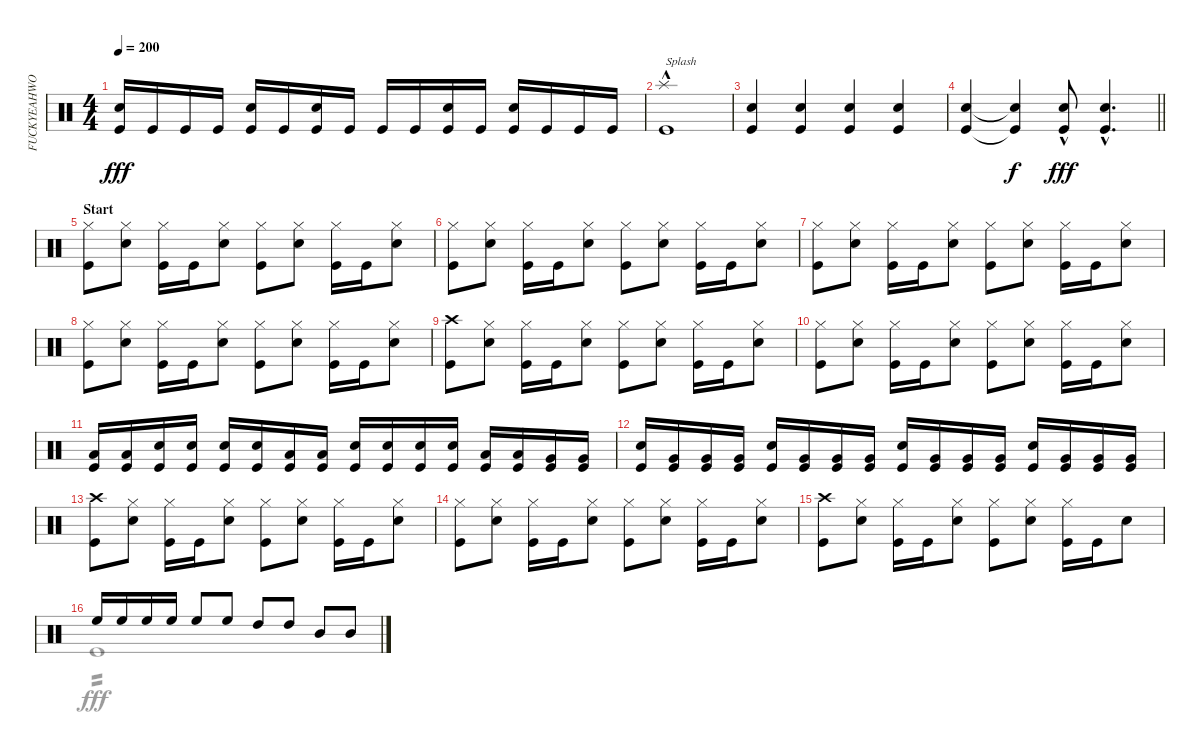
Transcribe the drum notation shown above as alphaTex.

\track ("FUCKYEAHWOOTDAVEMACKINTOSH!(Percussion)" "FUCKYEAHWO") {instrument percussion}
\staff {score}
\articulation defaults
\voice
\ts (4 4)
\tempo 200
\clef neutral
\ks c
("Kick (hit)" "Snare (hit) 2").16{dy fff} "Kick (hit)".16 "Kick (hit)".16 "Kick (hit)".16 ("Kick (hit)" "Snare (hit) 2").16 "Kick (hit)".16 ("Kick (hit)" "Snare (hit) 2").16 "Kick (hit)".16 "Kick (hit)".16 "Kick (hit)".16 ("Kick (hit)" "Snare (hit) 2").16 "Kick (hit)".16 ("Kick (hit)" "Snare (hit) 2").16 "Kick (hit)".16 "Kick (hit)".16 "Kick (hit)".16 |
("Kick (hit)" "Splash (hit)"{hac}).1{txt "Splash"} |
("Kick (hit)" "Snare (hit) 2").4 ("Kick (hit)" "Snare (hit) 2").4 ("Kick (hit)" "Snare (hit) 2").4 ("Kick (hit)" "Snare (hit) 2").4 |
\barLineRight lightlight
("Kick (hit)" "Snare (hit) 2").4 ("Kick (hit)"{t} "Snare (hit) 2"{t}).4{dy f} ("Kick (hit)"{hac} "Snare (hit) 2"{hac}).8{dy fff} ("Kick (hit)"{hac} "Snare (hit) 2"{hac}).4{d} |
\section ("" "Start")
("Kick (hit)" "Hi-Hat (closed)").8 ("Snare (hit) 2" "Hi-Hat (closed)").8 ("Kick (hit)" "Hi-Hat (closed)").16 "Kick (hit)".16 ("Snare (hit) 2" "Hi-Hat (closed)").8 ("Kick (hit)" "Hi-Hat (closed)").8 ("Snare (hit) 2" "Hi-Hat (closed)").8 ("Kick (hit)" "Hi-Hat (closed)").16 "Kick (hit)".16 ("Snare (hit) 2" "Hi-Hat (closed)").8 |
("Kick (hit)" "Hi-Hat (closed)").8 ("Snare (hit) 2" "Hi-Hat (closed)").8 ("Kick (hit)" "Hi-Hat (closed)").16 "Kick (hit)".16 ("Snare (hit) 2" "Hi-Hat (closed)").8 ("Kick (hit)" "Hi-Hat (closed)").8 ("Snare (hit) 2" "Hi-Hat (closed)").8 ("Kick (hit)" "Hi-Hat (closed)").16 "Kick (hit)".16 ("Snare (hit) 2" "Hi-Hat (closed)").8 |
("Kick (hit)" "Hi-Hat (closed)").8 ("Snare (hit) 2" "Hi-Hat (closed)").8 ("Kick (hit)" "Hi-Hat (closed)").16 "Kick (hit)".16 ("Snare (hit) 2" "Hi-Hat (closed)").8 ("Kick (hit)" "Hi-Hat (closed)").8 ("Snare (hit) 2" "Hi-Hat (closed)").8 ("Kick (hit)" "Hi-Hat (closed)").16 "Kick (hit)".16 ("Snare (hit) 2" "Hi-Hat (closed)").8 |
("Kick (hit)" "Hi-Hat (closed)").8 ("Snare (hit) 2" "Hi-Hat (closed)").8 ("Kick (hit)" "Hi-Hat (closed)").16 "Kick (hit)".16 ("Snare (hit) 2" "Hi-Hat (closed)").8 ("Kick (hit)" "Hi-Hat (closed)").8 ("Snare (hit) 2" "Hi-Hat (closed)").8 ("Kick (hit)" "Hi-Hat (closed)").16 "Kick (hit)".16 ("Snare (hit) 2" "Hi-Hat (closed)").8 |
("Kick (hit)" "Crash high (hit)").8 ("Snare (hit) 2" "Hi-Hat (closed)").8 ("Kick (hit)" "Hi-Hat (closed)").16 "Kick (hit)".16 ("Snare (hit) 2" "Hi-Hat (closed)").8 ("Kick (hit)" "Hi-Hat (closed)").8 ("Snare (hit) 2" "Hi-Hat (closed)").8 ("Kick (hit)" "Hi-Hat (closed)").16 "Kick (hit)".16 ("Snare (hit) 2" "Hi-Hat (closed)").8 |
("Kick (hit)" "Hi-Hat (closed)").8 ("Snare (hit) 2" "Hi-Hat (closed)").8 ("Kick (hit)" "Hi-Hat (closed)").16 "Kick (hit)".16 ("Snare (hit) 2" "Hi-Hat (closed)").8 ("Kick (hit)" "Hi-Hat (closed)").8 ("Snare (hit) 2" "Hi-Hat (closed)").8 ("Kick (hit)" "Hi-Hat (closed)").16 "Kick (hit)".16 ("Snare (hit) 2" "Hi-Hat (closed)").8 |
("Low Tom (hit)" "Kick (hit)").16 ("Low Tom (hit)" "Kick (hit)").16 ("Snare (hit) 2" "Kick (hit)").16 ("Snare (hit) 2" "Kick (hit)").16 ("Snare (hit) 2" "Kick (hit)").16 ("Snare (hit) 2" "Kick (hit)").16 ("Low Tom (hit)" "Kick (hit)").16 ("Low Tom (hit)" "Kick (hit)").16 ("Snare (hit) 2" "Kick (hit)").16 ("Snare (hit) 2" "Kick (hit)").16 ("Snare (hit) 2" "Kick (hit)").16 ("Snare (hit) 2" "Kick (hit)").16 ("Low Tom (hit)" "Kick (hit)").16 ("Low Tom (hit)" "Kick (hit)").16 ("Very Low Tom (hit)" "Kick (hit)").16 ("Very Low Tom (hit)" "Kick (hit)").16 |
("Snare (hit) 2" "Kick (hit)").16 ("Very Low Tom (hit)" "Kick (hit)").16 ("Very Low Tom (hit)" "Kick (hit)").16 ("Very Low Tom (hit)" "Kick (hit)").16 ("Snare (hit) 2" "Kick (hit)").16 ("Very Low Tom (hit)" "Kick (hit)").16 ("Very Low Tom (hit)" "Kick (hit)").16 ("Very Low Tom (hit)" "Kick (hit)").16 ("Snare (hit) 2" "Kick (hit)").16 ("Very Low Tom (hit)" "Kick (hit)").16 ("Very Low Tom (hit)" "Kick (hit)").16 ("Very Low Tom (hit)" "Kick (hit)").16 ("Snare (hit) 2" "Kick (hit)").16 ("Very Low Tom (hit)" "Kick (hit)").16 ("Very Low Tom (hit)" "Kick (hit)").16 ("Very Low Tom (hit)" "Kick (hit)").16 |
("Kick (hit)" "Crash high (hit)").8 ("Snare (hit) 2" "Hi-Hat (closed)").8 ("Kick (hit)" "Hi-Hat (closed)").16 "Kick (hit)".16 ("Snare (hit) 2" "Hi-Hat (closed)").8 ("Kick (hit)" "Hi-Hat (closed)").8 ("Snare (hit) 2" "Hi-Hat (closed)").8 ("Kick (hit)" "Hi-Hat (closed)").16 "Kick (hit)".16 ("Snare (hit) 2" "Hi-Hat (closed)").8 |
("Kick (hit)" "Hi-Hat (closed)").8 ("Snare (hit) 2" "Hi-Hat (closed)").8 ("Kick (hit)" "Hi-Hat (closed)").16 "Kick (hit)".16 ("Snare (hit) 2" "Hi-Hat (closed)").8 ("Kick (hit)" "Hi-Hat (closed)").8 ("Snare (hit) 2" "Hi-Hat (closed)").8 ("Kick (hit)" "Hi-Hat (closed)").16 "Kick (hit)".16 ("Snare (hit) 2" "Hi-Hat (closed)").8 |
("Kick (hit)" "Crash high (hit)").8 ("Snare (hit) 2" "Hi-Hat (closed)").8 ("Kick (hit)" "Hi-Hat (closed)").16 "Kick (hit)".16 ("Snare (hit) 2" "Hi-Hat (closed)").8 ("Kick (hit)" "Hi-Hat (closed)").8 ("Snare (hit) 2" "Hi-Hat (closed)").8 ("Kick (hit)" "Hi-Hat (closed)").16 "Kick (hit)".16 "Snare (hit) 2".8 |
"High Floor Tom (hit)".16 "High Floor Tom (hit)".16 "High Floor Tom (hit)".16 "High Floor Tom (hit)".16 "High Floor Tom (hit)".8 "High Floor Tom (hit)".8 "High Tom (hit)".8 "High Tom (hit)".8 "Mid Tom (hit)".8 "Mid Tom (hit)".8
\voice
\clef neutral
\ottava regular
\simile none
\ks c
|
|
|
\barLineRight lightlight
|
|
|
|
|
|
|
|
|
|
|
|
"Kick (hit)".1{tp 2}
